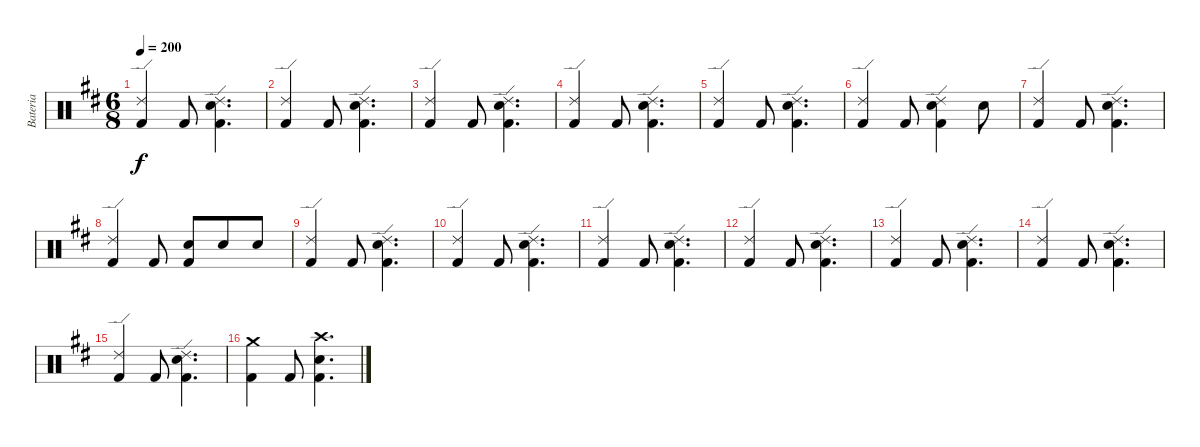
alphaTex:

\track ("Bateria" "Bateria") {instrument percussion}
\staff {score}
\articulation defaults
\ts (6 8)
\tempo 200
\clef neutral
\ks bminor
("Ride (edge) 2" "Kick (hit) 2").4{dy f} "Kick (hit) 2".8 ("Ride (edge) 2" "Electric Snare (hit)" "Kick (hit) 2").4{d} |
("Ride (edge) 2" "Kick (hit) 2").4 "Kick (hit) 2".8 ("Ride (edge) 2" "Electric Snare (hit)" "Kick (hit) 2").4{d} |
("Ride (edge) 2" "Kick (hit) 2").4 "Kick (hit) 2".8 ("Ride (edge) 2" "Electric Snare (hit)" "Kick (hit) 2").4{d} |
("Ride (edge) 2" "Kick (hit) 2").4 "Kick (hit) 2".8 ("Ride (edge) 2" "Electric Snare (hit)" "Kick (hit) 2").4{d} |
("Ride (edge) 2" "Kick (hit) 2").4 "Kick (hit) 2".8 ("Ride (edge) 2" "Electric Snare (hit)" "Kick (hit) 2").4{d} |
("Ride (edge) 2" "Kick (hit) 2").4 "Kick (hit) 2".8 ("Ride (edge) 2" "Electric Snare (hit)" "Kick (hit) 2").4 "Electric Snare (hit)".8 |
("Ride (edge) 2" "Kick (hit) 2").4 "Kick (hit) 2".8 ("Ride (edge) 2" "Electric Snare (hit)" "Kick (hit) 2").4{d} |
("Ride (edge) 2" "Kick (hit) 2").4 "Kick (hit) 2".8 ("Electric Snare (hit)" "Kick (hit) 2").8 "Electric Snare (hit)".8 "Electric Snare (hit)".8 |
("Ride (edge) 2" "Kick (hit) 2").4 "Kick (hit) 2".8 ("Ride (edge) 2" "Electric Snare (hit)" "Kick (hit) 2").4{d} |
("Ride (edge) 2" "Kick (hit) 2").4 "Kick (hit) 2".8 ("Ride (edge) 2" "Electric Snare (hit)" "Kick (hit) 2").4{d} |
("Ride (edge) 2" "Kick (hit) 2").4 "Kick (hit) 2".8 ("Ride (edge) 2" "Electric Snare (hit)" "Kick (hit) 2").4{d} |
("Ride (edge) 2" "Kick (hit) 2").4 "Kick (hit) 2".8 ("Ride (edge) 2" "Electric Snare (hit)" "Kick (hit) 2").4{d} |
("Ride (edge) 2" "Kick (hit) 2").4 "Kick (hit) 2".8 ("Ride (edge) 2" "Electric Snare (hit)" "Kick (hit) 2").4{d} |
("Ride (edge) 2" "Kick (hit) 2").4 "Kick (hit) 2".8 ("Ride (edge) 2" "Electric Snare (hit)" "Kick (hit) 2").4{d} |
("Ride (edge) 2" "Kick (hit) 2").4 "Kick (hit) 2".8 ("Ride (edge) 2" "Electric Snare (hit)" "Kick (hit) 2").4{d} |
("Crash medium (hit)" "Kick (hit) 2").4 "Kick (hit) 2".8 ("Crash high (hit)" "Electric Snare (hit)" "Kick (hit) 2").4{d}
